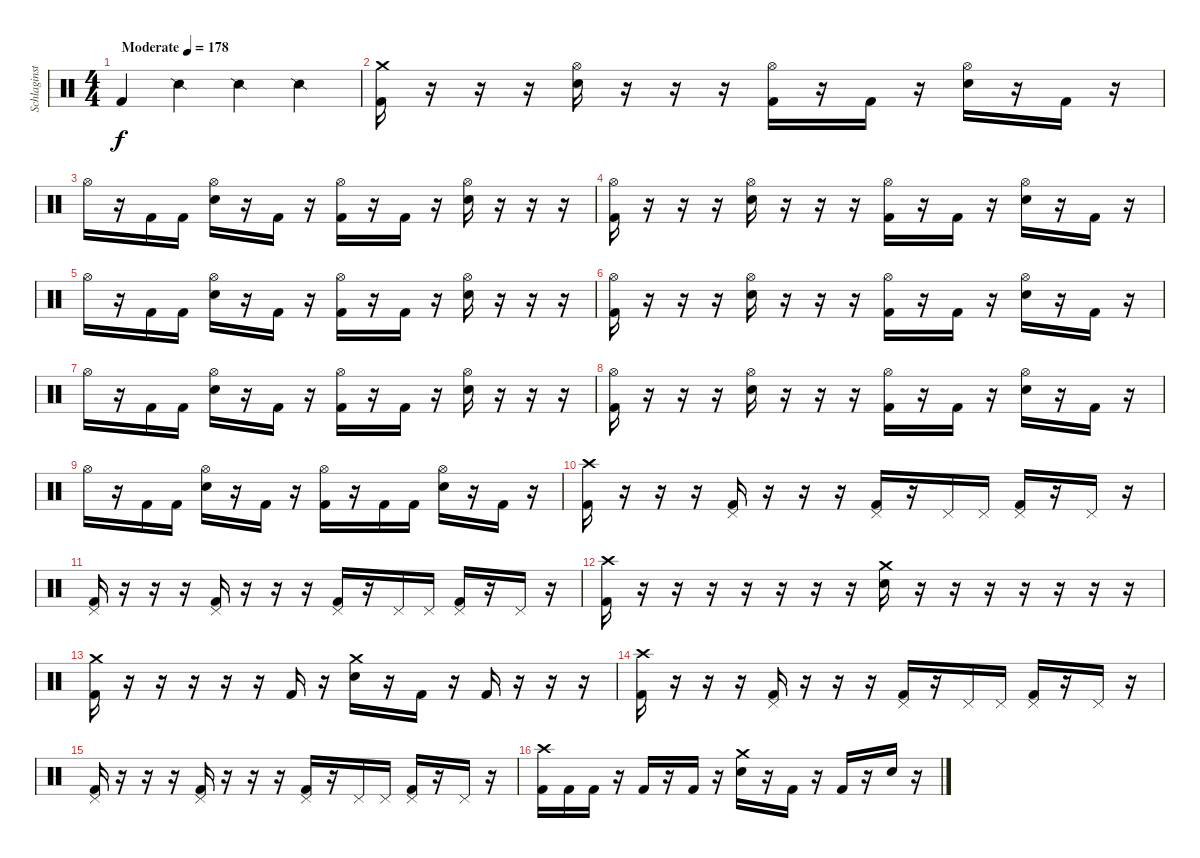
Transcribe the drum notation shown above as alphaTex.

\track ("Schlaginstrumente - Auswahl" "Schlaginst") {instrument percussion}
\staff {score}
\articulation defaults
\ts (4 4)
\tempo (178 "Moderate")
\clef neutral
\ks c "Kick (hit) 2".4{dy f} "Snare (side stick) 2".4 "Snare (side stick) 2".4 "Snare (side stick) 2".4
|
("Crash medium (hit)" "Kick (hit) 2").16 r.16 r.16 r.16 ("Hi-Hat (open)" "Snare (hit) 2").16 r.16 r.16 r.16 ("Hi-Hat (open)" "Kick (hit) 2").16 r.16 "Kick (hit) 2".16 r.16 ("Hi-Hat (open)" "Snare (hit) 2").16 r.16 "Kick (hit) 2".16 r.16 |
"Hi-Hat (open)".16 r.16 "Kick (hit) 2".16 "Kick (hit) 2".16 ("Hi-Hat (open)" "Snare (hit) 2").16 r.16 "Kick (hit) 2".16 r.16 ("Hi-Hat (open)" "Kick (hit) 2").16 r.16 "Kick (hit) 2".16 r.16 ("Hi-Hat (open)" "Snare (hit) 2").16 r.16 r.16 r.16 |
("Hi-Hat (open)" "Kick (hit) 2").16 r.16 r.16 r.16 ("Hi-Hat (open)" "Snare (hit) 2").16 r.16 r.16 r.16 ("Hi-Hat (open)" "Kick (hit) 2").16 r.16 "Kick (hit) 2".16 r.16 ("Hi-Hat (open)" "Snare (hit) 2").16 r.16 "Kick (hit) 2".16 r.16 |
"Hi-Hat (open)".16 r.16 "Kick (hit) 2".16 "Kick (hit) 2".16 ("Hi-Hat (open)" "Snare (hit) 2").16 r.16 "Kick (hit) 2".16 r.16 ("Hi-Hat (open)" "Kick (hit) 2").16 r.16 "Kick (hit) 2".16 r.16 ("Hi-Hat (open)" "Snare (hit) 2").16 r.16 r.16 r.16 |
("Hi-Hat (open)" "Kick (hit) 2").16 r.16 r.16 r.16 ("Hi-Hat (open)" "Snare (hit) 2").16 r.16 r.16 r.16 ("Hi-Hat (open)" "Kick (hit) 2").16 r.16 "Kick (hit) 2".16 r.16 ("Hi-Hat (open)" "Snare (hit) 2").16 r.16 "Kick (hit) 2".16 r.16 |
"Hi-Hat (open)".16 r.16 "Kick (hit) 2".16 "Kick (hit) 2".16 ("Hi-Hat (open)" "Snare (hit) 2").16 r.16 "Kick (hit) 2".16 r.16 ("Hi-Hat (open)" "Kick (hit) 2").16 r.16 "Kick (hit) 2".16 r.16 ("Hi-Hat (open)" "Snare (hit) 2").16 r.16 r.16 r.16 |
("Hi-Hat (open)" "Kick (hit) 2").16 r.16 r.16 r.16 ("Hi-Hat (open)" "Snare (hit) 2").16 r.16 r.16 r.16 ("Hi-Hat (open)" "Kick (hit) 2").16 r.16 "Kick (hit) 2".16 r.16 ("Hi-Hat (open)" "Snare (hit) 2").16 r.16 "Kick (hit) 2".16 r.16 |
"Hi-Hat (open)".16 r.16 "Kick (hit) 2".16 "Kick (hit) 2".16 ("Hi-Hat (open)" "Snare (hit) 2").16 r.16 "Kick (hit) 2".16 r.16 ("Hi-Hat (open)" "Kick (hit) 2").16 r.16 "Kick (hit) 2".16 "Kick (hit) 2".16 ("Hi-Hat (open)" "Snare (hit) 2").16 r.16 "Kick (hit) 2".16 r.16 |
("Crash high (hit)" "Kick (hit) 2").16 r.16 r.16 r.16 ("Pedal Hi-Hat (hit)" "Kick (hit) 2").16 r.16 r.16 r.16 ("Pedal Hi-Hat (hit)" "Kick (hit) 2").16 r.16 "Pedal Hi-Hat (hit)".16 "Pedal Hi-Hat (hit)".16 ("Pedal Hi-Hat (hit)" "Kick (hit) 2").16 r.16 "Pedal Hi-Hat (hit)".16 r.16 |
("Pedal Hi-Hat (hit)" "Kick (hit) 2").16 r.16 r.16 r.16 ("Pedal Hi-Hat (hit)" "Kick (hit) 2").16 r.16 r.16 r.16 ("Pedal Hi-Hat (hit)" "Kick (hit) 2").16 r.16 "Pedal Hi-Hat (hit)".16 "Pedal Hi-Hat (hit)".16 ("Pedal Hi-Hat (hit)" "Kick (hit) 2").16 r.16 "Pedal Hi-Hat (hit)".16 r.16 |
("Crash high (hit)" "Kick (hit) 2").16 r.16 r.16 r.16 r.16 r.16 r.16 r.16 ("Crash medium (hit)" "Snare (hit) 2").16 r.16 r.16 r.16 r.16 r.16 r.16 r.16 |
("Crash medium (hit)" "Kick (hit) 2").16 r.16 r.16 r.16 r.16 r.16 "Kick (hit) 2".16 r.16 ("Crash medium (hit)" "Snare (hit) 2").16 r.16 "Kick (hit) 2".16 r.16 "Kick (hit) 2".16 r.16 r.16 r.16 |
("Crash high (hit)" "Kick (hit) 2").16 r.16 r.16 r.16 ("Pedal Hi-Hat (hit)" "Kick (hit) 2").16 r.16 r.16 r.16 ("Pedal Hi-Hat (hit)" "Kick (hit) 2").16 r.16 "Pedal Hi-Hat (hit)".16 "Pedal Hi-Hat (hit)".16 ("Pedal Hi-Hat (hit)" "Kick (hit) 2").16 r.16 "Pedal Hi-Hat (hit)".16 r.16 |
("Pedal Hi-Hat (hit)" "Kick (hit) 2").16 r.16 r.16 r.16 ("Pedal Hi-Hat (hit)" "Kick (hit) 2").16 r.16 r.16 r.16 ("Pedal Hi-Hat (hit)" "Kick (hit) 2").16 r.16 "Pedal Hi-Hat (hit)".16 "Pedal Hi-Hat (hit)".16 ("Pedal Hi-Hat (hit)" "Kick (hit) 2").16 r.16 "Pedal Hi-Hat (hit)".16 r.16 |
("Crash high (hit)" "Kick (hit) 2").16 "Kick (hit) 2".16 "Kick (hit) 2".16 r.16 "Kick (hit) 2".16 r.16 "Kick (hit) 2".16 r.16 ("Crash medium (hit)" "Snare (hit) 2").16 r.16 "Kick (hit) 2".16 r.16 "Kick (hit) 2".16 r.16 "Snare (hit) 2".16 r.16
